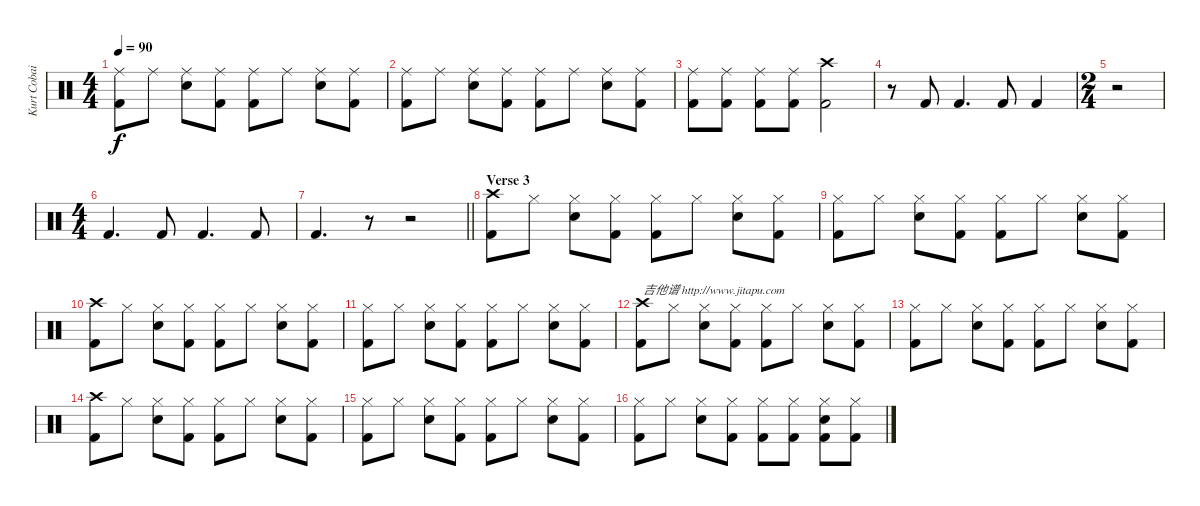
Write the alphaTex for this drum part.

\track ("Kurt Cobain" "Kurt Cobai") {instrument percussion}
\staff {score}
\articulation defaults
\ts (4 4)
\tempo 90
\clef neutral
\ks c
("Ride (middle)" "Kick (hit) 2").8{dy f} "Ride (middle)".8 ("Ride (middle)" "Snare (hit) 2").8 ("Ride (middle)" "Kick (hit) 2").8 ("Ride (middle)" "Kick (hit) 2").8 "Ride (middle)".8 ("Ride (middle)" "Snare (hit) 2").8 ("Ride (middle)" "Kick (hit) 2").8 |
("Ride (middle)" "Kick (hit) 2").8 "Ride (middle)".8 ("Ride (middle)" "Snare (hit) 2").8 ("Ride (middle)" "Kick (hit) 2").8 ("Ride (middle)" "Kick (hit) 2").8 "Ride (middle)".8 ("Ride (middle)" "Snare (hit) 2").8 ("Ride (middle)" "Kick (hit) 2").8 |
("Ride (middle)" "Kick (hit) 2").8 ("Ride (middle)" "Kick (hit) 2").8 ("Ride (middle)" "Kick (hit) 2").8 ("Ride (middle)" "Kick (hit) 2").8 ("Crash high (hit)" "Kick (hit) 2").2 |
r.8 "Kick (hit) 2".8 "Kick (hit) 2".4{d} "Kick (hit) 2".8 "Kick (hit) 2".4 |
\ts (2 4)
r.2 |
\ts (4 4)
"Kick (hit) 2".4{d} "Kick (hit) 2".8 "Kick (hit) 2".4{d} "Kick (hit) 2".8 |
\barLineRight lightlight "Kick (hit) 2".4{d}
r.8 r.2 |
\section ("" "Verse 3")
("Crash high (hit)" "Kick (hit) 2").8 "Hi-Hat (closed)".8 ("Hi-Hat (closed)" "Snare (hit) 2").8 ("Hi-Hat (closed)" "Kick (hit) 2").8 ("Hi-Hat (closed)" "Kick (hit) 2").8 "Hi-Hat (closed)".8 ("Hi-Hat (closed)" "Snare (hit) 2").8 ("Hi-Hat (closed)" "Kick (hit) 2").8 |
("Hi-Hat (closed)" "Kick (hit) 2").8 "Hi-Hat (closed)".8 ("Hi-Hat (closed)" "Snare (hit) 2").8 ("Hi-Hat (closed)" "Kick (hit) 2").8 ("Hi-Hat (closed)" "Kick (hit) 2").8 "Hi-Hat (closed)".8 ("Hi-Hat (closed)" "Snare (hit) 2").8 ("Hi-Hat (closed)" "Kick (hit) 2").8 |
("Crash high (hit)" "Kick (hit) 2").8 "Hi-Hat (closed)".8 ("Hi-Hat (closed)" "Snare (hit) 2").8 ("Hi-Hat (closed)" "Kick (hit) 2").8 ("Hi-Hat (closed)" "Kick (hit) 2").8 "Hi-Hat (closed)".8 ("Hi-Hat (closed)" "Snare (hit) 2").8 ("Hi-Hat (closed)" "Kick (hit) 2").8 |
("Hi-Hat (closed)" "Kick (hit) 2").8 "Hi-Hat (closed)".8 ("Hi-Hat (closed)" "Snare (hit) 2").8 ("Hi-Hat (closed)" "Kick (hit) 2").8 ("Hi-Hat (closed)" "Kick (hit) 2").8 "Hi-Hat (closed)".8 ("Hi-Hat (closed)" "Snare (hit) 2").8 ("Hi-Hat (closed)" "Kick (hit) 2").8 |
("Crash high (hit)" "Kick (hit) 2").8{txt "吉他谱 http://www.jitapu.com"} "Hi-Hat (closed)".8 ("Hi-Hat (closed)" "Snare (hit) 2").8 ("Hi-Hat (closed)" "Kick (hit) 2").8 ("Hi-Hat (closed)" "Kick (hit) 2").8 "Hi-Hat (closed)".8 ("Hi-Hat (closed)" "Snare (hit) 2").8 ("Hi-Hat (closed)" "Kick (hit) 2").8 |
("Hi-Hat (closed)" "Kick (hit) 2").8 "Hi-Hat (closed)".8 ("Hi-Hat (closed)" "Snare (hit) 2").8 ("Hi-Hat (closed)" "Kick (hit) 2").8 ("Hi-Hat (closed)" "Kick (hit) 2").8 "Hi-Hat (closed)".8 ("Hi-Hat (closed)" "Snare (hit) 2").8 ("Hi-Hat (closed)" "Kick (hit) 2").8 |
("Crash high (hit)" "Kick (hit) 2").8 "Hi-Hat (closed)".8 ("Hi-Hat (closed)" "Snare (hit) 2").8 ("Hi-Hat (closed)" "Kick (hit) 2").8 ("Hi-Hat (closed)" "Kick (hit) 2").8 "Hi-Hat (closed)".8 ("Hi-Hat (closed)" "Snare (hit) 2").8 ("Hi-Hat (closed)" "Kick (hit) 2").8 |
("Hi-Hat (closed)" "Kick (hit) 2").8 "Hi-Hat (closed)".8 ("Hi-Hat (closed)" "Snare (hit) 2").8 ("Hi-Hat (closed)" "Kick (hit) 2").8 ("Hi-Hat (closed)" "Kick (hit) 2").8 "Hi-Hat (closed)".8 ("Hi-Hat (closed)" "Snare (hit) 2").8 ("Hi-Hat (closed)" "Kick (hit) 2").8 |
("Hi-Hat (closed)" "Kick (hit) 2").8 "Hi-Hat (closed)".8 ("Hi-Hat (closed)" "Snare (hit) 2").8 ("Hi-Hat (closed)" "Kick (hit) 2").8 ("Hi-Hat (closed)" "Kick (hit) 2").8 ("Hi-Hat (closed)" "Kick (hit) 2").8 ("Hi-Hat (closed)" "Snare (hit) 2" "Kick (hit) 2").8 ("Hi-Hat (closed)" "Kick (hit) 2").8
